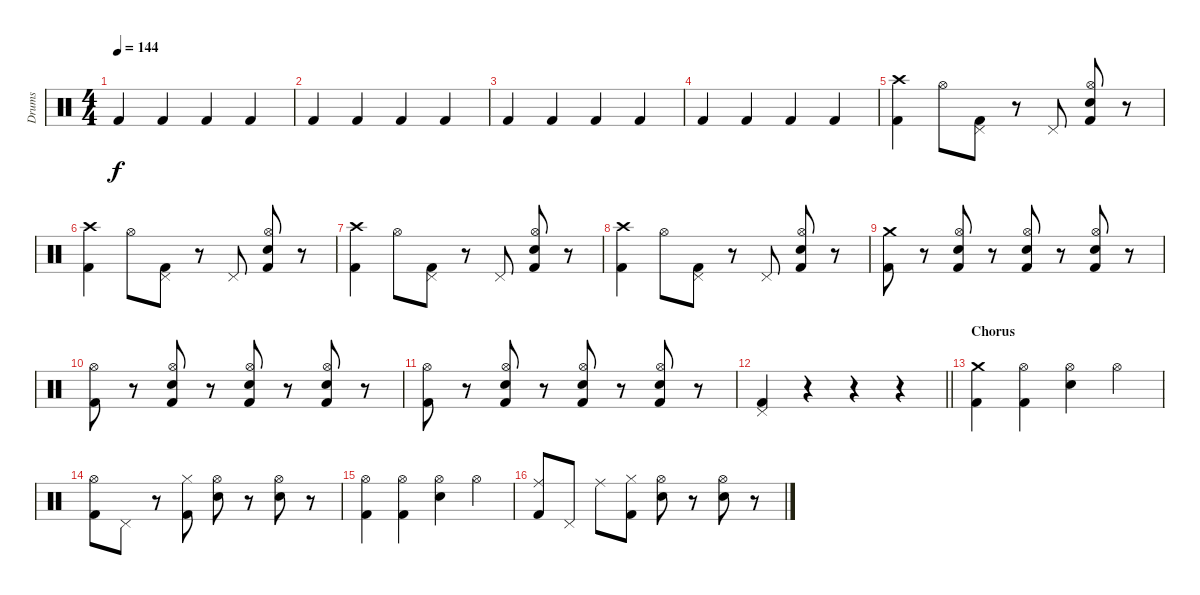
\track ("Drums" "Drums") {instrument percussion}
\staff {score}
\articulation defaults
\ts (4 4)
\tempo 144
\clef neutral
\ks c "Kick (hit) 2".4{dy f} "Kick (hit) 2".4 "Kick (hit) 2".4 "Kick (hit) 2".4
|
"Kick (hit) 2".4 "Kick (hit) 2".4 "Kick (hit) 2".4 "Kick (hit) 2".4 |
"Kick (hit) 2".4 "Kick (hit) 2".4 "Kick (hit) 2".4 "Kick (hit) 2".4 |
"Kick (hit) 2".4 "Kick (hit) 2".4 "Kick (hit) 2".4 "Kick (hit) 2".4 |
("Crash high (hit)" "Kick (hit) 2").4 "Hi-Hat (open)".8 ("Pedal Hi-Hat (hit)" "Kick (hit) 2").8 r.8 "Pedal Hi-Hat (hit)".8 ("Hi-Hat (open)" "Electric Snare (hit)" "Kick (hit) 2").8 r.8 |
("Crash high (hit)" "Kick (hit) 2").4 "Hi-Hat (open)".8 ("Pedal Hi-Hat (hit)" "Kick (hit) 2").8 r.8 "Pedal Hi-Hat (hit)".8 ("Hi-Hat (open)" "Electric Snare (hit)" "Kick (hit) 2").8 r.8 |
("Crash high (hit)" "Kick (hit) 2").4 "Hi-Hat (open)".8 ("Pedal Hi-Hat (hit)" "Kick (hit) 2").8 r.8 "Pedal Hi-Hat (hit)".8 ("Hi-Hat (open)" "Electric Snare (hit)" "Kick (hit) 2").8 r.8 |
("Crash high (hit)" "Kick (hit) 2").4 "Hi-Hat (open)".8 ("Pedal Hi-Hat (hit)" "Kick (hit) 2").8 r.8 "Pedal Hi-Hat (hit)".8 ("Hi-Hat (open)" "Electric Snare (hit)" "Kick (hit) 2").8 r.8 |
("Crash medium (hit)" "Kick (hit) 2").8 r.8 ("Hi-Hat (open)" "Electric Snare (hit)" "Kick (hit) 2").8 r.8 ("Hi-Hat (open)" "Electric Snare (hit)" "Kick (hit) 2").8 r.8 ("Hi-Hat (open)" "Electric Snare (hit)" "Kick (hit) 2").8 r.8 |
("Hi-Hat (open)" "Kick (hit) 2").8 r.8 ("Hi-Hat (open)" "Electric Snare (hit)" "Kick (hit) 2").8 r.8 ("Hi-Hat (open)" "Electric Snare (hit)" "Kick (hit) 2").8 r.8 ("Hi-Hat (open)" "Electric Snare (hit)" "Kick (hit) 2").8 r.8 |
("Hi-Hat (open)" "Kick (hit) 2").8 r.8 ("Hi-Hat (open)" "Electric Snare (hit)" "Kick (hit) 2").8 r.8 ("Hi-Hat (open)" "Electric Snare (hit)" "Kick (hit) 2").8 r.8 ("Hi-Hat (open)" "Electric Snare (hit)" "Kick (hit) 2").8 r.8 |
\barLineRight lightlight
("Pedal Hi-Hat (hit)" "Kick (hit) 2").4 r.4 r.4 r.4 |
\section ("" "Chorus")
("Crash medium (hit)" "Kick (hit) 2").4 ("Hi-Hat (open)" "Kick (hit) 2").4 ("Hi-Hat (open)" "Electric Snare (hit)").4 "Hi-Hat (open)".4 |
("Hi-Hat (open)" "Kick (hit) 2").8 "Pedal Hi-Hat (hit)".8 r.8 ("Hi-Hat (closed)" "Kick (hit) 2").8 ("Hi-Hat (open)" "Electric Snare (hit)").8 r.8 ("Hi-Hat (open)" "Electric Snare (hit)").8 r.8 |
("Hi-Hat (open)" "Kick (hit) 2").4 ("Hi-Hat (open)" "Kick (hit) 2").4 ("Hi-Hat (open)" "Electric Snare (hit)").4 "Hi-Hat (open)".4 |
("Ride (middle)" "Kick (hit) 2").8 "Pedal Hi-Hat (hit)".8 "Ride (middle)".8 ("Hi-Hat (closed)" "Kick (hit) 2").8 ("Hi-Hat (open)" "Electric Snare (hit)").8 r.8 ("Hi-Hat (open)" "Electric Snare (hit)").8 r.8
